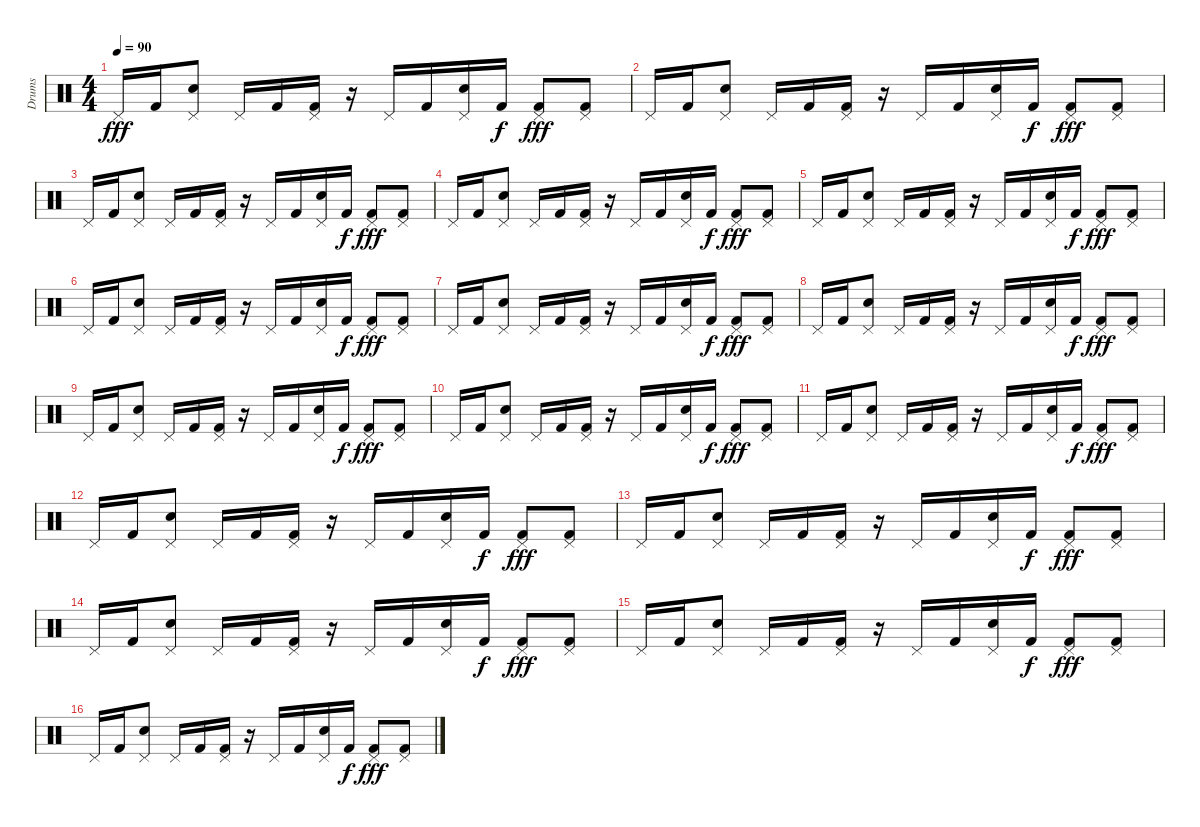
\track ("Drums" "Drums") {instrument percussion}
\staff {score}
\articulation defaults
\ts (4 4)
\tempo 90
\clef neutral
\ks c "Pedal Hi-Hat (hit)".16{dy fff} "Kick (hit) 2".16
("Electric Snare (hit)" "Pedal Hi-Hat (hit)").8 "Pedal Hi-Hat (hit)".16 "Kick (hit) 2".16 ("Kick (hit) 2" "Pedal Hi-Hat (hit)").16 r.16 "Pedal Hi-Hat (hit)".16 "Kick (hit) 2".16 ("Pedal Hi-Hat (hit)" "Electric Snare (hit)").16 "Kick (hit) 2".16{dy f} ("Kick (hit) 2" "Pedal Hi-Hat (hit)").8{dy fff} ("Kick (hit) 2" "Pedal Hi-Hat (hit)").8 |
"Pedal Hi-Hat (hit)".16 "Kick (hit) 2".16 ("Electric Snare (hit)" "Pedal Hi-Hat (hit)").8 "Pedal Hi-Hat (hit)".16 "Kick (hit) 2".16 ("Kick (hit) 2" "Pedal Hi-Hat (hit)").16 r.16 "Pedal Hi-Hat (hit)".16 "Kick (hit) 2".16 ("Pedal Hi-Hat (hit)" "Electric Snare (hit)").16 "Kick (hit) 2".16{dy f} ("Kick (hit) 2" "Pedal Hi-Hat (hit)").8{dy fff} ("Kick (hit) 2" "Pedal Hi-Hat (hit)").8 |
"Pedal Hi-Hat (hit)".16 "Kick (hit) 2".16 ("Electric Snare (hit)" "Pedal Hi-Hat (hit)").8 "Pedal Hi-Hat (hit)".16 "Kick (hit) 2".16 ("Kick (hit) 2" "Pedal Hi-Hat (hit)").16 r.16 "Pedal Hi-Hat (hit)".16 "Kick (hit) 2".16 ("Pedal Hi-Hat (hit)" "Electric Snare (hit)").16 "Kick (hit) 2".16{dy f} ("Kick (hit) 2" "Pedal Hi-Hat (hit)").8{dy fff} ("Kick (hit) 2" "Pedal Hi-Hat (hit)").8 |
"Pedal Hi-Hat (hit)".16 "Kick (hit) 2".16 ("Electric Snare (hit)" "Pedal Hi-Hat (hit)").8 "Pedal Hi-Hat (hit)".16 "Kick (hit) 2".16 ("Kick (hit) 2" "Pedal Hi-Hat (hit)").16 r.16 "Pedal Hi-Hat (hit)".16 "Kick (hit) 2".16 ("Pedal Hi-Hat (hit)" "Electric Snare (hit)").16 "Kick (hit) 2".16{dy f} ("Kick (hit) 2" "Pedal Hi-Hat (hit)").8{dy fff} ("Kick (hit) 2" "Pedal Hi-Hat (hit)").8 |
"Pedal Hi-Hat (hit)".16 "Kick (hit) 2".16 ("Electric Snare (hit)" "Pedal Hi-Hat (hit)").8 "Pedal Hi-Hat (hit)".16 "Kick (hit) 2".16 ("Kick (hit) 2" "Pedal Hi-Hat (hit)").16 r.16 "Pedal Hi-Hat (hit)".16 "Kick (hit) 2".16 ("Pedal Hi-Hat (hit)" "Electric Snare (hit)").16 "Kick (hit) 2".16{dy f} ("Kick (hit) 2" "Pedal Hi-Hat (hit)").8{dy fff} ("Kick (hit) 2" "Pedal Hi-Hat (hit)").8 |
"Pedal Hi-Hat (hit)".16 "Kick (hit) 2".16 ("Electric Snare (hit)" "Pedal Hi-Hat (hit)").8 "Pedal Hi-Hat (hit)".16 "Kick (hit) 2".16 ("Kick (hit) 2" "Pedal Hi-Hat (hit)").16 r.16 "Pedal Hi-Hat (hit)".16 "Kick (hit) 2".16 ("Pedal Hi-Hat (hit)" "Electric Snare (hit)").16 "Kick (hit) 2".16{dy f} ("Kick (hit) 2" "Pedal Hi-Hat (hit)").8{dy fff} ("Kick (hit) 2" "Pedal Hi-Hat (hit)").8 |
"Pedal Hi-Hat (hit)".16 "Kick (hit) 2".16 ("Electric Snare (hit)" "Pedal Hi-Hat (hit)").8 "Pedal Hi-Hat (hit)".16 "Kick (hit) 2".16 ("Kick (hit) 2" "Pedal Hi-Hat (hit)").16 r.16 "Pedal Hi-Hat (hit)".16 "Kick (hit) 2".16 ("Pedal Hi-Hat (hit)" "Electric Snare (hit)").16 "Kick (hit) 2".16{dy f} ("Kick (hit) 2" "Pedal Hi-Hat (hit)").8{dy fff} ("Kick (hit) 2" "Pedal Hi-Hat (hit)").8 |
"Pedal Hi-Hat (hit)".16 "Kick (hit) 2".16 ("Electric Snare (hit)" "Pedal Hi-Hat (hit)").8 "Pedal Hi-Hat (hit)".16 "Kick (hit) 2".16 ("Kick (hit) 2" "Pedal Hi-Hat (hit)").16 r.16 "Pedal Hi-Hat (hit)".16 "Kick (hit) 2".16 ("Pedal Hi-Hat (hit)" "Electric Snare (hit)").16 "Kick (hit) 2".16{dy f} ("Kick (hit) 2" "Pedal Hi-Hat (hit)").8{dy fff} ("Kick (hit) 2" "Pedal Hi-Hat (hit)").8 |
"Pedal Hi-Hat (hit)".16 "Kick (hit) 2".16 ("Electric Snare (hit)" "Pedal Hi-Hat (hit)").8 "Pedal Hi-Hat (hit)".16 "Kick (hit) 2".16 ("Kick (hit) 2" "Pedal Hi-Hat (hit)").16 r.16 "Pedal Hi-Hat (hit)".16 "Kick (hit) 2".16 ("Pedal Hi-Hat (hit)" "Electric Snare (hit)").16 "Kick (hit) 2".16{dy f} ("Kick (hit) 2" "Pedal Hi-Hat (hit)").8{dy fff} ("Kick (hit) 2" "Pedal Hi-Hat (hit)").8 |
"Pedal Hi-Hat (hit)".16 "Kick (hit) 2".16 ("Electric Snare (hit)" "Pedal Hi-Hat (hit)").8 "Pedal Hi-Hat (hit)".16 "Kick (hit) 2".16 ("Kick (hit) 2" "Pedal Hi-Hat (hit)").16 r.16 "Pedal Hi-Hat (hit)".16 "Kick (hit) 2".16 ("Pedal Hi-Hat (hit)" "Electric Snare (hit)").16 "Kick (hit) 2".16{dy f} ("Kick (hit) 2" "Pedal Hi-Hat (hit)").8{dy fff} ("Kick (hit) 2" "Pedal Hi-Hat (hit)").8 |
"Pedal Hi-Hat (hit)".16 "Kick (hit) 2".16 ("Electric Snare (hit)" "Pedal Hi-Hat (hit)").8 "Pedal Hi-Hat (hit)".16 "Kick (hit) 2".16 ("Kick (hit) 2" "Pedal Hi-Hat (hit)").16 r.16 "Pedal Hi-Hat (hit)".16 "Kick (hit) 2".16 ("Pedal Hi-Hat (hit)" "Electric Snare (hit)").16 "Kick (hit) 2".16{dy f} ("Kick (hit) 2" "Pedal Hi-Hat (hit)").8{dy fff} ("Kick (hit) 2" "Pedal Hi-Hat (hit)").8 |
"Pedal Hi-Hat (hit)".16 "Kick (hit) 2".16 ("Electric Snare (hit)" "Pedal Hi-Hat (hit)").8 "Pedal Hi-Hat (hit)".16 "Kick (hit) 2".16 ("Kick (hit) 2" "Pedal Hi-Hat (hit)").16 r.16 "Pedal Hi-Hat (hit)".16 "Kick (hit) 2".16 ("Pedal Hi-Hat (hit)" "Electric Snare (hit)").16 "Kick (hit) 2".16{dy f} ("Kick (hit) 2" "Pedal Hi-Hat (hit)").8{dy fff} ("Kick (hit) 2" "Pedal Hi-Hat (hit)").8 |
"Pedal Hi-Hat (hit)".16 "Kick (hit) 2".16 ("Electric Snare (hit)" "Pedal Hi-Hat (hit)").8 "Pedal Hi-Hat (hit)".16 "Kick (hit) 2".16 ("Kick (hit) 2" "Pedal Hi-Hat (hit)").16 r.16 "Pedal Hi-Hat (hit)".16 "Kick (hit) 2".16 ("Pedal Hi-Hat (hit)" "Electric Snare (hit)").16 "Kick (hit) 2".16{dy f} ("Kick (hit) 2" "Pedal Hi-Hat (hit)").8{dy fff} ("Kick (hit) 2" "Pedal Hi-Hat (hit)").8 |
"Pedal Hi-Hat (hit)".16 "Kick (hit) 2".16 ("Electric Snare (hit)" "Pedal Hi-Hat (hit)").8 "Pedal Hi-Hat (hit)".16 "Kick (hit) 2".16 ("Kick (hit) 2" "Pedal Hi-Hat (hit)").16 r.16 "Pedal Hi-Hat (hit)".16 "Kick (hit) 2".16 ("Pedal Hi-Hat (hit)" "Electric Snare (hit)").16 "Kick (hit) 2".16{dy f} ("Kick (hit) 2" "Pedal Hi-Hat (hit)").8{dy fff} ("Kick (hit) 2" "Pedal Hi-Hat (hit)").8 |
"Pedal Hi-Hat (hit)".16 "Kick (hit) 2".16 ("Electric Snare (hit)" "Pedal Hi-Hat (hit)").8 "Pedal Hi-Hat (hit)".16 "Kick (hit) 2".16 ("Kick (hit) 2" "Pedal Hi-Hat (hit)").16 r.16 "Pedal Hi-Hat (hit)".16 "Kick (hit) 2".16 ("Pedal Hi-Hat (hit)" "Electric Snare (hit)").16 "Kick (hit) 2".16{dy f} ("Kick (hit) 2" "Pedal Hi-Hat (hit)").8{dy fff} ("Kick (hit) 2" "Pedal Hi-Hat (hit)").8 |
"Pedal Hi-Hat (hit)".16 "Kick (hit) 2".16 ("Electric Snare (hit)" "Pedal Hi-Hat (hit)").8 "Pedal Hi-Hat (hit)".16 "Kick (hit) 2".16 ("Kick (hit) 2" "Pedal Hi-Hat (hit)").16 r.16 "Pedal Hi-Hat (hit)".16 "Kick (hit) 2".16 ("Pedal Hi-Hat (hit)" "Electric Snare (hit)").16 "Kick (hit) 2".16{dy f} ("Kick (hit) 2" "Pedal Hi-Hat (hit)").8{dy fff} ("Kick (hit) 2" "Pedal Hi-Hat (hit)").8
